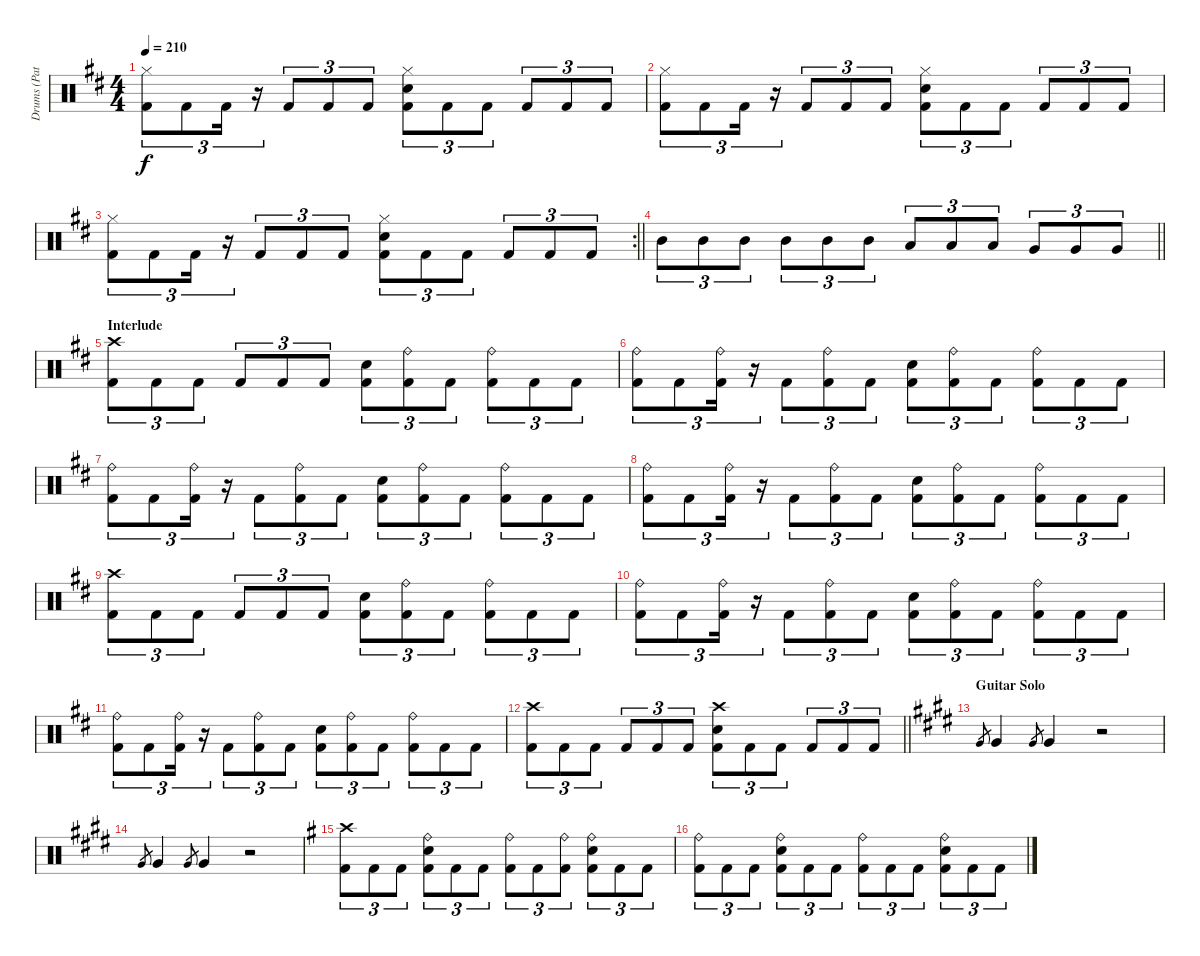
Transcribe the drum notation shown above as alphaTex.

\track ("Drums (Patrick Johansson)" "Drums (Pat") {instrument percussion}
\staff {score}
\articulation defaults
\ts (4 4)
\tempo 210
\clef neutral
\ks d
("Hi-Hat (closed)" "Kick (hit) 2").8{tu (3 2) dy f} "Kick (hit) 2".8{tu (3 2)} "Kick (hit) 2".16{tu (3 2)} r.16{tu (3 2)} "Kick (hit) 2".8{tu (3 2)} "Kick (hit) 2".8{tu (3 2)} "Kick (hit) 2".8{tu (3 2)} ("Electric Snare (hit)" "Hi-Hat (closed)" "Kick (hit) 2").8{tu (3 2)} "Kick (hit) 2".8{tu (3 2)} "Kick (hit) 2".8{tu (3 2)} "Kick (hit) 2".8{tu (3 2)} "Kick (hit) 2".8{tu (3 2)} "Kick (hit) 2".8{tu (3 2)} |
("Hi-Hat (closed)" "Kick (hit) 2").8{tu (3 2)} "Kick (hit) 2".8{tu (3 2)} "Kick (hit) 2".16{tu (3 2)} r.16{tu (3 2)} "Kick (hit) 2".8{tu (3 2)} "Kick (hit) 2".8{tu (3 2)} "Kick (hit) 2".8{tu (3 2)} ("Electric Snare (hit)" "Hi-Hat (closed)" "Kick (hit) 2").8{tu (3 2)} "Kick (hit) 2".8{tu (3 2)} "Kick (hit) 2".8{tu (3 2)} "Kick (hit) 2".8{tu (3 2)} "Kick (hit) 2".8{tu (3 2)} "Kick (hit) 2".8{tu (3 2)} |
\rc 2
\barLineRight lightlight
("Hi-Hat (closed)" "Kick (hit) 2").8{tu (3 2)} "Kick (hit) 2".8{tu (3 2)} "Kick (hit) 2".16{tu (3 2)} r.16{tu (3 2)} "Kick (hit) 2".8{tu (3 2)} "Kick (hit) 2".8{tu (3 2)} "Kick (hit) 2".8{tu (3 2)} ("Electric Snare (hit)" "Hi-Hat (closed)" "Kick (hit) 2").8{tu (3 2)} "Kick (hit) 2".8{tu (3 2)} "Kick (hit) 2".8{tu (3 2)} "Kick (hit) 2".8{tu (3 2)} "Kick (hit) 2".8{tu (3 2)} "Kick (hit) 2".8{tu (3 2)} |
\barLineRight lightlight "Mid Tom (hit)".8{tu (3 2)} "Mid Tom (hit)".8{tu (3 2)} "Mid Tom (hit)".8{tu (3 2)} "Mid Tom (hit)".8{tu (3 2)} "Mid Tom (hit)".8{tu (3 2)} "Mid Tom (hit)".8{tu (3 2)} "Low Tom (hit)".8{tu (3 2)} "Low Tom (hit)".8{tu (3 2)} "Low Tom (hit)".8{tu (3 2)} "Very Low Tom (hit)".8{tu (3 2)} "Very Low Tom (hit)".8{tu (3 2)} "Very Low Tom (hit)".8{tu (3 2)}
|
\section ("" "Interlude")
("Crash high (hit)" "Kick (hit) 2").8{tu (3 2)} "Kick (hit) 2".8{tu (3 2)} "Kick (hit) 2".8{tu (3 2)} "Kick (hit) 2".8{tu (3 2)} "Kick (hit) 2".8{tu (3 2)} "Kick (hit) 2".8{tu (3 2)} ("Electric Snare (hit)" "Kick (hit) 2").8{tu (3 2)} ("Ride (bell)" "Kick (hit) 2").8{tu (3 2)} "Kick (hit) 2".8{tu (3 2)} ("Ride (bell)" "Kick (hit) 2").8{tu (3 2)} "Kick (hit) 2".8{tu (3 2)} "Kick (hit) 2".8{tu (3 2)} |
("Ride (bell)" "Kick (hit) 2").8{tu (3 2)} "Kick (hit) 2".8{tu (3 2)} ("Ride (bell)" "Kick (hit) 2").16{tu (3 2)} r.16{tu (3 2)} "Kick (hit) 2".8{tu (3 2)} ("Ride (bell)" "Kick (hit) 2").8{tu (3 2)} "Kick (hit) 2".8{tu (3 2)} ("Electric Snare (hit)" "Kick (hit) 2").8{tu (3 2)} ("Ride (bell)" "Kick (hit) 2").8{tu (3 2)} "Kick (hit) 2".8{tu (3 2)} ("Ride (bell)" "Kick (hit) 2").8{tu (3 2)} "Kick (hit) 2".8{tu (3 2)} "Kick (hit) 2".8{tu (3 2)} |
("Ride (bell)" "Kick (hit) 2").8{tu (3 2)} "Kick (hit) 2".8{tu (3 2)} ("Ride (bell)" "Kick (hit) 2").16{tu (3 2)} r.16{tu (3 2)} "Kick (hit) 2".8{tu (3 2)} ("Ride (bell)" "Kick (hit) 2").8{tu (3 2)} "Kick (hit) 2".8{tu (3 2)} ("Electric Snare (hit)" "Kick (hit) 2").8{tu (3 2)} ("Ride (bell)" "Kick (hit) 2").8{tu (3 2)} "Kick (hit) 2".8{tu (3 2)} ("Ride (bell)" "Kick (hit) 2").8{tu (3 2)} "Kick (hit) 2".8{tu (3 2)} "Kick (hit) 2".8{tu (3 2)} |
("Ride (bell)" "Kick (hit) 2").8{tu (3 2)} "Kick (hit) 2".8{tu (3 2)} ("Ride (bell)" "Kick (hit) 2").16{tu (3 2)} r.16{tu (3 2)} "Kick (hit) 2".8{tu (3 2)} ("Ride (bell)" "Kick (hit) 2").8{tu (3 2)} "Kick (hit) 2".8{tu (3 2)} ("Electric Snare (hit)" "Kick (hit) 2").8{tu (3 2)} ("Ride (bell)" "Kick (hit) 2").8{tu (3 2)} "Kick (hit) 2".8{tu (3 2)} ("Ride (bell)" "Kick (hit) 2").8{tu (3 2)} "Kick (hit) 2".8{tu (3 2)} "Kick (hit) 2".8{tu (3 2)} |
("Crash high (hit)" "Kick (hit) 2").8{tu (3 2)} "Kick (hit) 2".8{tu (3 2)} "Kick (hit) 2".8{tu (3 2)} "Kick (hit) 2".8{tu (3 2)} "Kick (hit) 2".8{tu (3 2)} "Kick (hit) 2".8{tu (3 2)} ("Electric Snare (hit)" "Kick (hit) 2").8{tu (3 2)} ("Ride (bell)" "Kick (hit) 2").8{tu (3 2)} "Kick (hit) 2".8{tu (3 2)} ("Ride (bell)" "Kick (hit) 2").8{tu (3 2)} "Kick (hit) 2".8{tu (3 2)} "Kick (hit) 2".8{tu (3 2)} |
("Ride (bell)" "Kick (hit) 2").8{tu (3 2)} "Kick (hit) 2".8{tu (3 2)} ("Ride (bell)" "Kick (hit) 2").16{tu (3 2)} r.16{tu (3 2)} "Kick (hit) 2".8{tu (3 2)} ("Ride (bell)" "Kick (hit) 2").8{tu (3 2)} "Kick (hit) 2".8{tu (3 2)} ("Electric Snare (hit)" "Kick (hit) 2").8{tu (3 2)} ("Ride (bell)" "Kick (hit) 2").8{tu (3 2)} "Kick (hit) 2".8{tu (3 2)} ("Ride (bell)" "Kick (hit) 2").8{tu (3 2)} "Kick (hit) 2".8{tu (3 2)} "Kick (hit) 2".8{tu (3 2)} |
("Ride (bell)" "Kick (hit) 2").8{tu (3 2)} "Kick (hit) 2".8{tu (3 2)} ("Ride (bell)" "Kick (hit) 2").16{tu (3 2)} r.16{tu (3 2)} "Kick (hit) 2".8{tu (3 2)} ("Ride (bell)" "Kick (hit) 2").8{tu (3 2)} "Kick (hit) 2".8{tu (3 2)} ("Electric Snare (hit)" "Kick (hit) 2").8{tu (3 2)} ("Ride (bell)" "Kick (hit) 2").8{tu (3 2)} "Kick (hit) 2".8{tu (3 2)} ("Ride (bell)" "Kick (hit) 2").8{tu (3 2)} "Kick (hit) 2".8{tu (3 2)} "Kick (hit) 2".8{tu (3 2)} |
\barLineRight lightlight
("Crash high (hit)" "Kick (hit) 2").8{tu (3 2)} "Kick (hit) 2".8{tu (3 2)} "Kick (hit) 2".8{tu (3 2)} "Kick (hit) 2".8{tu (3 2)} "Kick (hit) 2".8{tu (3 2)} "Kick (hit) 2".8{tu (3 2)} ("Crash high (hit)" "Electric Snare (hit)" "Kick (hit) 2").8{tu (3 2)} "Kick (hit) 2".8{tu (3 2)} "Kick (hit) 2".8{tu (3 2)} "Kick (hit) 2".8{tu (3 2)} "Kick (hit) 2".8{tu (3 2)} "Kick (hit) 2".8{tu (3 2)} |
\section ("" "Guitar Solo")
\ks e "Very Low Tom (hit)".8{gr} "Very Low Tom (hit)".4 "Very Low Tom (hit)".8{gr} "Very Low Tom (hit)".4
r.2 |
"Very Low Tom (hit)".8{gr} "Very Low Tom (hit)".4 "Very Low Tom (hit)".8{gr} "Very Low Tom (hit)".4 r.2 |
\ks g
("Crash high (hit)" "Kick (hit) 2").8{tu (3 2)} "Kick (hit) 2".8{tu (3 2)} "Kick (hit) 2".8{tu (3 2)} ("Ride (bell)" "Electric Snare (hit)" "Kick (hit) 2").8{tu (3 2)} "Kick (hit) 2".8{tu (3 2)} "Kick (hit) 2".8{tu (3 2)} ("Ride (bell)" "Kick (hit) 2").8{tu (3 2)} "Kick (hit) 2".8{tu (3 2)} ("Ride (bell)" "Kick (hit) 2").8{tu (3 2)} ("Ride (bell)" "Electric Snare (hit)" "Kick (hit) 2").8{tu (3 2)} "Kick (hit) 2".8{tu (3 2)} "Kick (hit) 2".8{tu (3 2)} |
("Ride (bell)" "Kick (hit) 2").8{tu (3 2)} "Kick (hit) 2".8{tu (3 2)} "Kick (hit) 2".8{tu (3 2)} ("Ride (bell)" "Electric Snare (hit)" "Kick (hit) 2").8{tu (3 2)} "Kick (hit) 2".8{tu (3 2)} "Kick (hit) 2".8{tu (3 2)} ("Ride (bell)" "Kick (hit) 2").8{tu (3 2)} "Kick (hit) 2".8{tu (3 2)} "Kick (hit) 2".8{tu (3 2)} ("Ride (bell)" "Electric Snare (hit)" "Kick (hit) 2").8{tu (3 2)} "Kick (hit) 2".8{tu (3 2)} "Kick (hit) 2".8{tu (3 2)}
